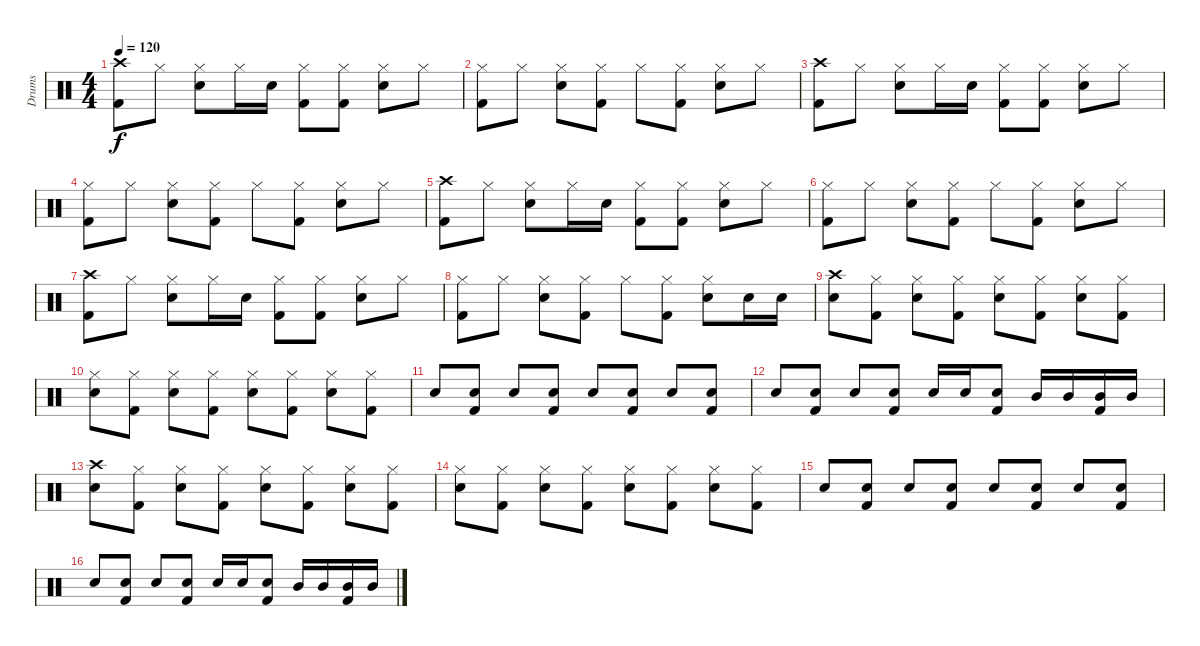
\track ("Drums" "Drums") {instrument percussion}
\staff {score}
\articulation defaults
\ts (4 4)
\tempo 120
\clef neutral
\ks c
("Crash high (hit)" "Kick (hit) 2").8{dy f} "Hi-Hat (closed)".8 ("Hi-Hat (closed)" "Snare (hit) 2").8 "Hi-Hat (closed)".16 "Snare (hit) 2".16 ("Hi-Hat (closed)" "Kick (hit) 2").8 ("Hi-Hat (closed)" "Kick (hit) 2").8 ("Hi-Hat (closed)" "Snare (hit) 2").8 "Hi-Hat (closed)".8 |
("Hi-Hat (closed)" "Kick (hit) 2").8 "Hi-Hat (closed)".8 ("Hi-Hat (closed)" "Snare (hit) 2").8 ("Hi-Hat (closed)" "Kick (hit) 2").8 "Hi-Hat (closed)".8 ("Hi-Hat (closed)" "Kick (hit) 2").8 ("Hi-Hat (closed)" "Snare (hit) 2").8 "Hi-Hat (closed)".8 |
("Crash high (hit)" "Kick (hit) 2").8 "Hi-Hat (closed)".8 ("Hi-Hat (closed)" "Snare (hit) 2").8 "Hi-Hat (closed)".16 "Snare (hit) 2".16 ("Hi-Hat (closed)" "Kick (hit) 2").8 ("Hi-Hat (closed)" "Kick (hit) 2").8 ("Hi-Hat (closed)" "Snare (hit) 2").8 "Hi-Hat (closed)".8 |
("Hi-Hat (closed)" "Kick (hit) 2").8 "Hi-Hat (closed)".8 ("Hi-Hat (closed)" "Snare (hit) 2").8 ("Hi-Hat (closed)" "Kick (hit) 2").8 "Hi-Hat (closed)".8 ("Hi-Hat (closed)" "Kick (hit) 2").8 ("Hi-Hat (closed)" "Snare (hit) 2").8 "Hi-Hat (closed)".8 |
("Crash high (hit)" "Kick (hit) 2").8 "Hi-Hat (closed)".8 ("Hi-Hat (closed)" "Snare (hit) 2").8 "Hi-Hat (closed)".16 "Snare (hit) 2".16 ("Hi-Hat (closed)" "Kick (hit) 2").8 ("Hi-Hat (closed)" "Kick (hit) 2").8 ("Hi-Hat (closed)" "Snare (hit) 2").8 "Hi-Hat (closed)".8 |
("Hi-Hat (closed)" "Kick (hit) 2").8 "Hi-Hat (closed)".8 ("Hi-Hat (closed)" "Snare (hit) 2").8 ("Hi-Hat (closed)" "Kick (hit) 2").8 "Hi-Hat (closed)".8 ("Hi-Hat (closed)" "Kick (hit) 2").8 ("Hi-Hat (closed)" "Snare (hit) 2").8 "Hi-Hat (closed)".8 |
("Crash high (hit)" "Kick (hit) 2").8 "Hi-Hat (closed)".8 ("Hi-Hat (closed)" "Snare (hit) 2").8 "Hi-Hat (closed)".16 "Snare (hit) 2".16 ("Hi-Hat (closed)" "Kick (hit) 2").8 ("Hi-Hat (closed)" "Kick (hit) 2").8 ("Hi-Hat (closed)" "Snare (hit) 2").8 "Hi-Hat (closed)".8 |
("Hi-Hat (closed)" "Kick (hit) 2").8 "Hi-Hat (closed)".8 ("Hi-Hat (closed)" "Snare (hit) 2").8 ("Hi-Hat (closed)" "Kick (hit) 2").8 "Hi-Hat (closed)".8 ("Hi-Hat (closed)" "Kick (hit) 2").8 ("Hi-Hat (closed)" "Snare (hit) 2").8 "Snare (hit) 2".16 "Snare (hit) 2".16 |
("Crash high (hit)" "Snare (hit) 2").8 ("Hi-Hat (closed)" "Kick (hit) 2").8 ("Hi-Hat (closed)" "Snare (hit) 2").8 ("Hi-Hat (closed)" "Kick (hit) 2").8 ("Hi-Hat (closed)" "Snare (hit) 2").8 ("Hi-Hat (closed)" "Kick (hit) 2").8 ("Hi-Hat (closed)" "Snare (hit) 2").8 ("Hi-Hat (closed)" "Kick (hit) 2").8 |
("Hi-Hat (closed)" "Snare (hit) 2").8 ("Hi-Hat (closed)" "Kick (hit) 2").8 ("Hi-Hat (closed)" "Snare (hit) 2").8 ("Hi-Hat (closed)" "Kick (hit) 2").8 ("Hi-Hat (closed)" "Snare (hit) 2").8 ("Hi-Hat (closed)" "Kick (hit) 2").8 ("Hi-Hat (closed)" "Snare (hit) 2").8 ("Hi-Hat (closed)" "Kick (hit) 2").8 |
"Snare (hit) 2".8 ("Snare (hit) 2" "Kick (hit) 2").8 "Snare (hit) 2".8 ("Snare (hit) 2" "Kick (hit) 2").8 "Snare (hit) 2".8 ("Snare (hit) 2" "Kick (hit) 2").8 "Snare (hit) 2".8 ("Snare (hit) 2" "Kick (hit) 2").8 |
"Snare (hit) 2".8 ("Snare (hit) 2" "Kick (hit) 2").8 "Snare (hit) 2".8 ("Snare (hit) 2" "Kick (hit) 2").8 "Snare (hit) 2".16 "Snare (hit) 2".16 ("Snare (hit) 2" "Kick (hit) 2").8 "Mid Tom (hit)".16 "Mid Tom (hit)".16 ("Mid Tom (hit)" "Kick (hit) 2").16 "Mid Tom (hit)".16 |
("Crash high (hit)" "Snare (hit) 2").8 ("Hi-Hat (closed)" "Kick (hit) 2").8 ("Hi-Hat (closed)" "Snare (hit) 2").8 ("Hi-Hat (closed)" "Kick (hit) 2").8 ("Hi-Hat (closed)" "Snare (hit) 2").8 ("Hi-Hat (closed)" "Kick (hit) 2").8 ("Hi-Hat (closed)" "Snare (hit) 2").8 ("Hi-Hat (closed)" "Kick (hit) 2").8 |
("Hi-Hat (closed)" "Snare (hit) 2").8 ("Hi-Hat (closed)" "Kick (hit) 2").8 ("Hi-Hat (closed)" "Snare (hit) 2").8 ("Hi-Hat (closed)" "Kick (hit) 2").8 ("Hi-Hat (closed)" "Snare (hit) 2").8 ("Hi-Hat (closed)" "Kick (hit) 2").8 ("Hi-Hat (closed)" "Snare (hit) 2").8 ("Hi-Hat (closed)" "Kick (hit) 2").8 |
"Snare (hit) 2".8 ("Snare (hit) 2" "Kick (hit) 2").8 "Snare (hit) 2".8 ("Snare (hit) 2" "Kick (hit) 2").8 "Snare (hit) 2".8 ("Snare (hit) 2" "Kick (hit) 2").8 "Snare (hit) 2".8 ("Snare (hit) 2" "Kick (hit) 2").8 |
"Snare (hit) 2".8 ("Snare (hit) 2" "Kick (hit) 2").8 "Snare (hit) 2".8 ("Snare (hit) 2" "Kick (hit) 2").8 "Snare (hit) 2".16 "Snare (hit) 2".16 ("Snare (hit) 2" "Kick (hit) 2").8 "Mid Tom (hit)".16 "Mid Tom (hit)".16 ("Mid Tom (hit)" "Kick (hit) 2").16 "Mid Tom (hit)".16
